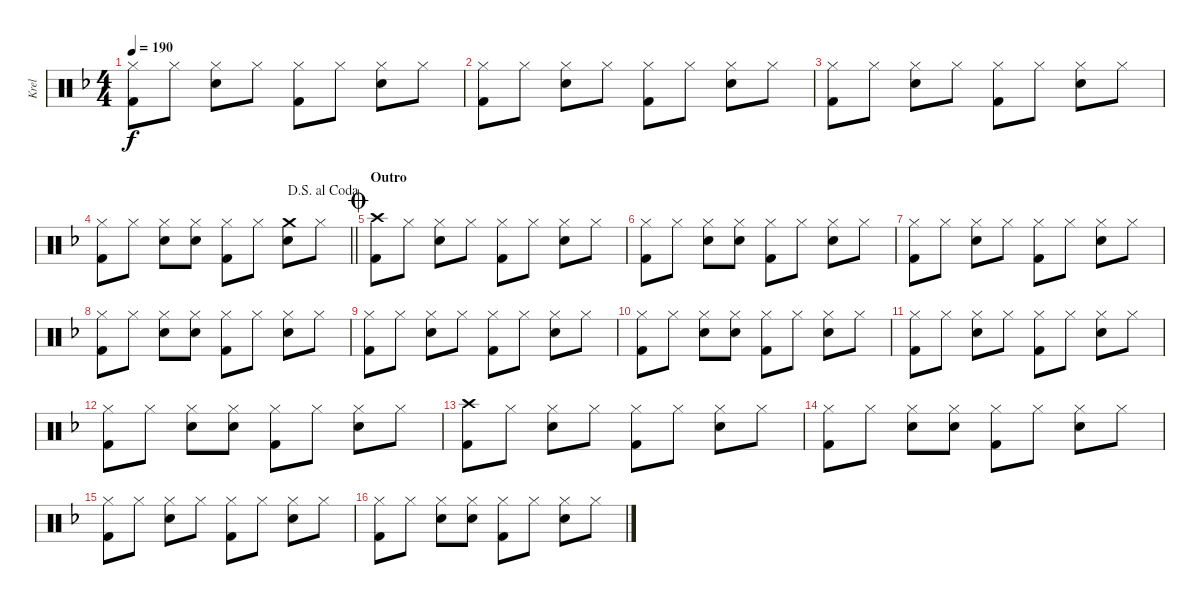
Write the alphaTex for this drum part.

\track ("Krel" "Krel") {instrument percussion}
\staff {score}
\articulation defaults
\ts (4 4)
\tempo 190
\clef neutral
\ks f
("Hi-Hat (closed)" "Kick (hit) 2").8{dy f} "Hi-Hat (closed)".8 ("Hi-Hat (closed)" "Snare (hit) 2").8 "Hi-Hat (closed)".8 ("Hi-Hat (closed)" "Kick (hit) 2").8 "Hi-Hat (closed)".8 ("Hi-Hat (closed)" "Snare (hit) 2").8 "Hi-Hat (closed)".8 |
("Hi-Hat (closed)" "Kick (hit) 2").8 "Hi-Hat (closed)".8 ("Hi-Hat (closed)" "Snare (hit) 2").8 "Hi-Hat (closed)".8 ("Hi-Hat (closed)" "Kick (hit) 2").8 "Hi-Hat (closed)".8 ("Hi-Hat (closed)" "Snare (hit) 2").8 "Hi-Hat (closed)".8 |
("Hi-Hat (closed)" "Kick (hit) 2").8 "Hi-Hat (closed)".8 ("Hi-Hat (closed)" "Snare (hit) 2").8 "Hi-Hat (closed)".8 ("Hi-Hat (closed)" "Kick (hit) 2").8 "Hi-Hat (closed)".8 ("Hi-Hat (closed)" "Snare (hit) 2").8 "Hi-Hat (closed)".8 |
\jump dalsegnoalcoda
\barLineRight lightlight
("Hi-Hat (closed)" "Kick (hit) 2").8 "Hi-Hat (closed)".8 ("Hi-Hat (closed)" "Snare (hit) 2").8 ("Hi-Hat (closed)" "Snare (hit) 2").8 ("Hi-Hat (closed)" "Kick (hit) 2").8 "Hi-Hat (closed)".8 ("Crash medium (hit)" "Snare (hit) 2").8 "Hi-Hat (closed)".8 |
\section ("" "Outro")
\jump coda
("Crash high (hit)" "Kick (hit) 2").8 "Hi-Hat (closed)".8 ("Hi-Hat (closed)" "Snare (hit) 2").8 "Hi-Hat (closed)".8 ("Hi-Hat (closed)" "Kick (hit) 2").8 "Hi-Hat (closed)".8 ("Hi-Hat (closed)" "Snare (hit) 2").8 "Hi-Hat (closed)".8 |
("Hi-Hat (closed)" "Kick (hit) 2").8 "Hi-Hat (closed)".8 ("Hi-Hat (closed)" "Snare (hit) 2").8 ("Hi-Hat (closed)" "Snare (hit) 2").8 ("Hi-Hat (closed)" "Kick (hit) 2").8 "Hi-Hat (closed)".8 ("Hi-Hat (closed)" "Snare (hit) 2").8 "Hi-Hat (closed)".8 |
("Hi-Hat (closed)" "Kick (hit) 2").8 "Hi-Hat (closed)".8 ("Hi-Hat (closed)" "Snare (hit) 2").8 "Hi-Hat (closed)".8 ("Hi-Hat (closed)" "Kick (hit) 2").8 "Hi-Hat (closed)".8 ("Hi-Hat (closed)" "Snare (hit) 2").8 "Hi-Hat (closed)".8 |
("Hi-Hat (closed)" "Kick (hit) 2").8 "Hi-Hat (closed)".8 ("Hi-Hat (closed)" "Snare (hit) 2").8 ("Hi-Hat (closed)" "Snare (hit) 2").8 ("Hi-Hat (closed)" "Kick (hit) 2").8 "Hi-Hat (closed)".8 ("Hi-Hat (closed)" "Snare (hit) 2").8 "Hi-Hat (closed)".8 |
("Hi-Hat (closed)" "Kick (hit) 2").8 "Hi-Hat (closed)".8 ("Hi-Hat (closed)" "Snare (hit) 2").8 "Hi-Hat (closed)".8 ("Hi-Hat (closed)" "Kick (hit) 2").8 "Hi-Hat (closed)".8 ("Hi-Hat (closed)" "Snare (hit) 2").8 "Hi-Hat (closed)".8 |
("Hi-Hat (closed)" "Kick (hit) 2").8 "Hi-Hat (closed)".8 ("Hi-Hat (closed)" "Snare (hit) 2").8 ("Hi-Hat (closed)" "Snare (hit) 2").8 ("Hi-Hat (closed)" "Kick (hit) 2").8 "Hi-Hat (closed)".8 ("Hi-Hat (closed)" "Snare (hit) 2").8 "Hi-Hat (closed)".8 |
("Hi-Hat (closed)" "Kick (hit) 2").8 "Hi-Hat (closed)".8 ("Hi-Hat (closed)" "Snare (hit) 2").8 "Hi-Hat (closed)".8 ("Hi-Hat (closed)" "Kick (hit) 2").8 "Hi-Hat (closed)".8 ("Hi-Hat (closed)" "Snare (hit) 2").8 "Hi-Hat (closed)".8 |
("Hi-Hat (closed)" "Kick (hit) 2").8 "Hi-Hat (closed)".8 ("Hi-Hat (closed)" "Snare (hit) 2").8 ("Hi-Hat (closed)" "Snare (hit) 2").8 ("Hi-Hat (closed)" "Kick (hit) 2").8 "Hi-Hat (closed)".8 ("Hi-Hat (closed)" "Snare (hit) 2").8 "Hi-Hat (closed)".8 |
("Crash high (hit)" "Kick (hit) 2").8 "Hi-Hat (closed)".8 ("Hi-Hat (closed)" "Snare (hit) 2").8 "Hi-Hat (closed)".8 ("Hi-Hat (closed)" "Kick (hit) 2").8 "Hi-Hat (closed)".8 ("Hi-Hat (closed)" "Snare (hit) 2").8 "Hi-Hat (closed)".8 |
("Hi-Hat (closed)" "Kick (hit) 2").8 "Hi-Hat (closed)".8 ("Hi-Hat (closed)" "Snare (hit) 2").8 ("Hi-Hat (closed)" "Snare (hit) 2").8 ("Hi-Hat (closed)" "Kick (hit) 2").8 "Hi-Hat (closed)".8 ("Hi-Hat (closed)" "Snare (hit) 2").8 "Hi-Hat (closed)".8 |
("Hi-Hat (closed)" "Kick (hit) 2").8 "Hi-Hat (closed)".8 ("Hi-Hat (closed)" "Snare (hit) 2").8 "Hi-Hat (closed)".8 ("Hi-Hat (closed)" "Kick (hit) 2").8 "Hi-Hat (closed)".8 ("Hi-Hat (closed)" "Snare (hit) 2").8 "Hi-Hat (closed)".8 |
("Hi-Hat (closed)" "Kick (hit) 2").8 "Hi-Hat (closed)".8 ("Hi-Hat (closed)" "Snare (hit) 2").8 ("Hi-Hat (closed)" "Snare (hit) 2").8 ("Hi-Hat (closed)" "Kick (hit) 2").8 "Hi-Hat (closed)".8 ("Hi-Hat (closed)" "Snare (hit) 2").8 "Hi-Hat (closed)".8
